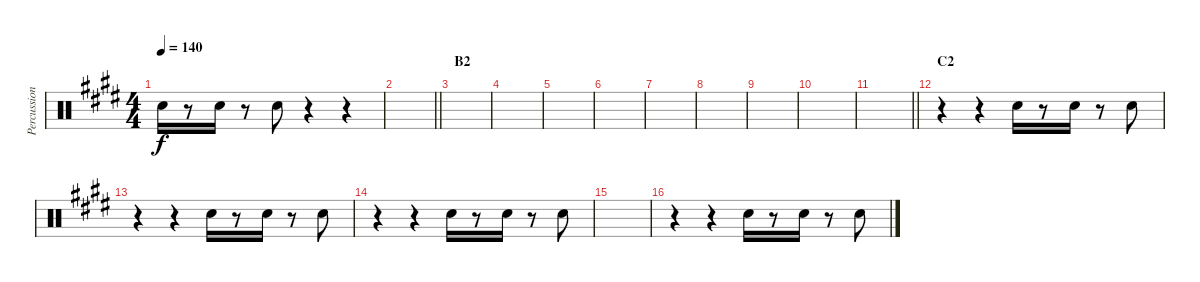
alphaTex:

\track ("Percussion" "Percussion") {instrument percussion}
\staff {score}
\articulation defaults
\ts (4 4)
\tempo 140
\clef neutral
\ks e "Hand Clap (hit)".16{dy f}
r.8 "Hand Clap (hit)".16 r.8 "Hand Clap (hit)".8 r.4 r.4 |
\barLineRight lightlight
|
\section ("" "B2")
|
|
|
|
|
|
|
|
\barLineRight lightlight
|
\section ("" "C2")
r.4 r.4 "Hand Clap (hit)".16 r.8 "Hand Clap (hit)".16 r.8 "Hand Clap (hit)".8 |
r.4 r.4 "Hand Clap (hit)".16 r.8 "Hand Clap (hit)".16 r.8 "Hand Clap (hit)".8 |
r.4 r.4 "Hand Clap (hit)".16 r.8 "Hand Clap (hit)".16 r.8 "Hand Clap (hit)".8 |
|
r.4 r.4 "Hand Clap (hit)".16 r.8 "Hand Clap (hit)".16 r.8 "Hand Clap (hit)".8
